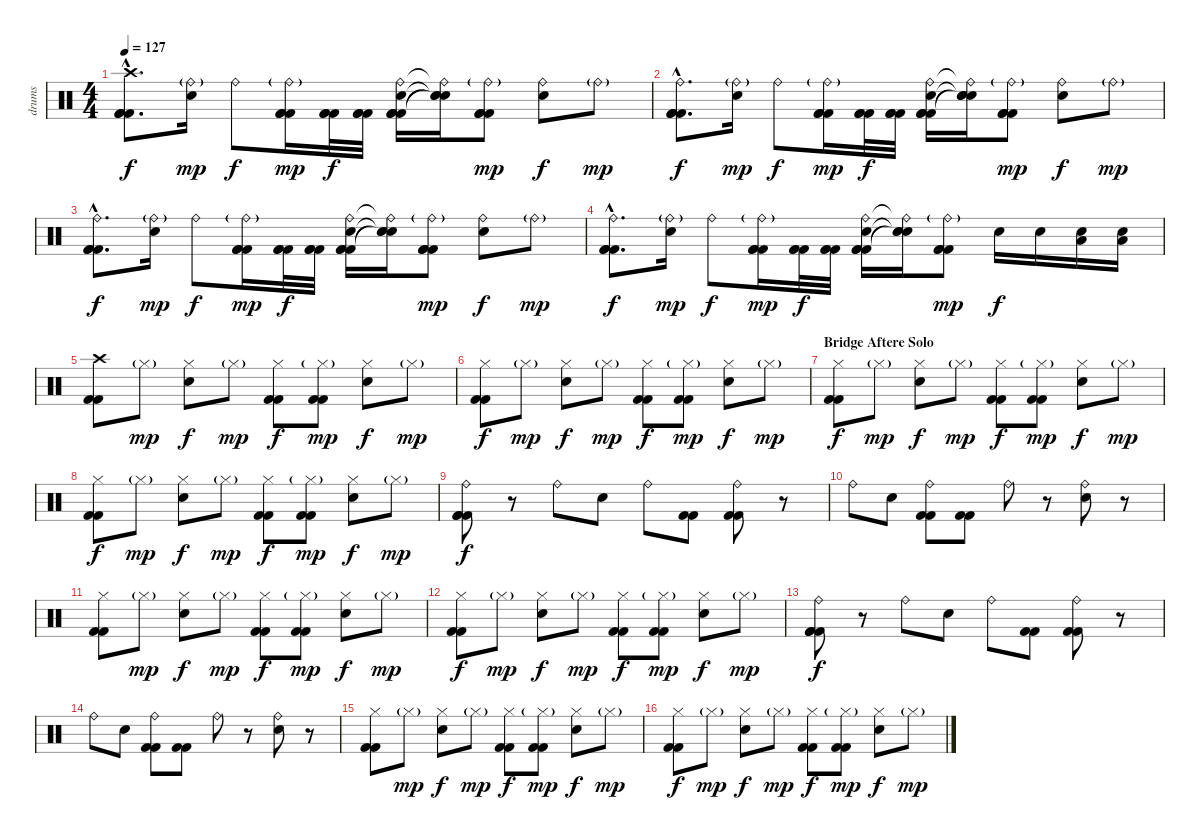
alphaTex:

\track ("drums" "drums") {instrument percussion}
\staff {score}
\articulation defaults
\ts (4 4)
\tempo 127
\clef neutral
\ks c
("Crash high (hit)"{hac} "Kick (hit) 2"{hac} "Kick (hit) 2"{hac} "Kick (hit) 2"{hac}).8{d dy f} ("Ride (bell)"{g} "Electric Snare (hit)").16{dy mp} "Ride (bell)".8{dy f} ("Ride (bell)"{g} "Kick (hit) 2" "Kick (hit) 2" "Kick (hit) 2").16{dy mp} ("Kick (hit) 2" "Kick (hit) 2" "Kick (hit) 2").32{dy f} ("Kick (hit) 2" "Kick (hit) 2" "Kick (hit) 2").32 ("Ride (bell)" "Electric Snare (hit)" "Kick (hit) 2" "Kick (hit) 2" "Kick (hit) 2").16 ("Ride (bell)"{t} "Electric Snare (hit)"{t} "Snare (hit)"{t} "Snare (hit)"{t}).16 ("Ride (bell)"{g} "Kick (hit) 2" "Kick (hit) 2" "Kick (hit) 2").8{dy mp} ("Ride (bell)" "Electric Snare (hit)").8{dy f} "Ride (bell)"{g}.8{dy mp} |
("Ride (bell)"{hac} "Kick (hit) 2"{hac} "Kick (hit) 2"{hac} "Kick (hit) 2"{hac}).8{d dy f} ("Ride (bell)"{g} "Electric Snare (hit)").16{dy mp} "Ride (bell)".8{dy f} ("Ride (bell)"{g} "Kick (hit) 2" "Kick (hit) 2" "Kick (hit) 2").16{dy mp} ("Kick (hit) 2" "Kick (hit) 2" "Kick (hit) 2").32{dy f} ("Kick (hit) 2" "Kick (hit) 2" "Kick (hit) 2").32 ("Ride (bell)" "Electric Snare (hit)" "Kick (hit) 2" "Kick (hit) 2" "Kick (hit) 2").16 ("Ride (bell)"{t} "Electric Snare (hit)"{t} "Snare (hit)"{t} "Snare (hit)"{t}).16 ("Ride (bell)"{g} "Kick (hit) 2" "Kick (hit) 2" "Kick (hit) 2").8{dy mp} ("Ride (bell)" "Electric Snare (hit)").8{dy f} "Ride (bell)"{g}.8{dy mp} |
("Ride (bell)"{hac} "Kick (hit) 2"{hac} "Kick (hit) 2"{hac} "Kick (hit) 2"{hac}).8{d dy f} ("Ride (bell)"{g} "Electric Snare (hit)").16{dy mp} "Ride (bell)".8{dy f} ("Ride (bell)"{g} "Kick (hit) 2" "Kick (hit) 2" "Kick (hit) 2").16{dy mp} ("Kick (hit) 2" "Kick (hit) 2" "Kick (hit) 2").32{dy f} ("Kick (hit) 2" "Kick (hit) 2" "Kick (hit) 2").32 ("Ride (bell)" "Electric Snare (hit)" "Kick (hit) 2" "Kick (hit) 2" "Kick (hit) 2").16 ("Ride (bell)"{t} "Electric Snare (hit)"{t} "Snare (hit)"{t} "Snare (hit)"{t}).16 ("Ride (bell)"{g} "Kick (hit) 2" "Kick (hit) 2" "Kick (hit) 2").8{dy mp} ("Ride (bell)" "Electric Snare (hit)").8{dy f} "Ride (bell)"{g}.8{dy mp} |
("Ride (bell)"{hac} "Kick (hit) 2"{hac} "Kick (hit) 2"{hac} "Kick (hit) 2"{hac}).8{d dy f} ("Ride (bell)"{g} "Electric Snare (hit)").16{dy mp} "Ride (bell)".8{dy f} ("Ride (bell)"{g} "Kick (hit) 2" "Kick (hit) 2" "Kick (hit) 2").16{dy mp} ("Kick (hit) 2" "Kick (hit) 2" "Kick (hit) 2").32{dy f} ("Kick (hit) 2" "Kick (hit) 2" "Kick (hit) 2").32 ("Ride (bell)" "Electric Snare (hit)" "Kick (hit) 2" "Kick (hit) 2" "Kick (hit) 2").16 ("Ride (bell)"{t} "Electric Snare (hit)"{t} "Snare (hit)"{t} "Snare (hit)"{t}).16 ("Ride (bell)"{g} "Kick (hit) 2" "Kick (hit) 2" "Kick (hit) 2").8{dy mp} "Electric Snare (hit)".16{dy f} "Electric Snare (hit)".16 ("Low Floor Tom (hit)" "Electric Snare (hit)").16 ("Low Floor Tom (hit)" "Electric Snare (hit)").16 |
("Crash high (hit)" "Kick (hit) 2" "Kick (hit) 2").8 "Hi-Hat (closed)"{g}.8{dy mp} ("Hi-Hat (closed)" "Electric Snare (hit)").8{dy f} "Hi-Hat (closed)"{g}.8{dy mp} ("Hi-Hat (closed)" "Kick (hit) 2" "Kick (hit) 2").8{dy f} ("Hi-Hat (closed)"{g} "Kick (hit) 2" "Kick (hit) 2").8{dy mp} ("Hi-Hat (closed)" "Electric Snare (hit)").8{dy f} "Hi-Hat (closed)"{g}.8{dy mp} |
("Hi-Hat (closed)" "Kick (hit) 2" "Kick (hit) 2").8{dy f} "Hi-Hat (closed)"{g}.8{dy mp} ("Hi-Hat (closed)" "Electric Snare (hit)").8{dy f} "Hi-Hat (closed)"{g}.8{dy mp} ("Hi-Hat (closed)" "Kick (hit) 2" "Kick (hit) 2").8{dy f} ("Hi-Hat (closed)"{g} "Kick (hit) 2" "Kick (hit) 2").8{dy mp} ("Hi-Hat (closed)" "Electric Snare (hit)").8{dy f} "Hi-Hat (closed)"{g}.8{dy mp} |
\section ("" "Bridge Aftere Solo")
("Hi-Hat (closed)" "Kick (hit) 2" "Kick (hit) 2").8{dy f} "Hi-Hat (closed)"{g}.8{dy mp} ("Hi-Hat (closed)" "Electric Snare (hit)").8{dy f} "Hi-Hat (closed)"{g}.8{dy mp} ("Hi-Hat (closed)" "Kick (hit) 2" "Kick (hit) 2").8{dy f} ("Hi-Hat (closed)"{g} "Kick (hit) 2" "Kick (hit) 2").8{dy mp} ("Hi-Hat (closed)" "Electric Snare (hit)").8{dy f} "Hi-Hat (closed)"{g}.8{dy mp} |
("Hi-Hat (closed)" "Kick (hit) 2" "Kick (hit) 2").8{dy f} "Hi-Hat (closed)"{g}.8{dy mp} ("Hi-Hat (closed)" "Electric Snare (hit)").8{dy f} "Hi-Hat (closed)"{g}.8{dy mp} ("Hi-Hat (closed)" "Kick (hit) 2" "Kick (hit) 2").8{dy f} ("Hi-Hat (closed)"{g} "Kick (hit) 2" "Kick (hit) 2").8{dy mp} ("Hi-Hat (closed)" "Electric Snare (hit)").8{dy f} "Hi-Hat (closed)"{g}.8{dy mp} |
("Ride (bell)" "Kick (hit) 2" "Kick (hit) 2" "Kick (hit) 2").8{dy f} r.8 "Ride (bell)".8 "Electric Snare (hit)".8 "Ride (bell)".8 ("Kick (hit) 2" "Kick (hit) 2").8 ("Ride (bell)" "Kick (hit) 2" "Kick (hit) 2").8 r.8 |
"Ride (bell)".8 "Electric Snare (hit)".8 ("Ride (bell)" "Kick (hit) 2" "Kick (hit) 2").8 ("Kick (hit) 2" "Kick (hit) 2").8 "Ride (bell)".8 r.8 ("Ride (bell)" "Electric Snare (hit)").8 r.8 |
("Hi-Hat (closed)" "Kick (hit) 2" "Kick (hit) 2").8 "Hi-Hat (closed)"{g}.8{dy mp} ("Hi-Hat (closed)" "Electric Snare (hit)").8{dy f} "Hi-Hat (closed)"{g}.8{dy mp} ("Hi-Hat (closed)" "Kick (hit) 2" "Kick (hit) 2").8{dy f} ("Hi-Hat (closed)"{g} "Kick (hit) 2" "Kick (hit) 2").8{dy mp} ("Hi-Hat (closed)" "Electric Snare (hit)").8{dy f} "Hi-Hat (closed)"{g}.8{dy mp} |
("Hi-Hat (closed)" "Kick (hit) 2" "Kick (hit) 2").8{dy f} "Hi-Hat (closed)"{g}.8{dy mp} ("Hi-Hat (closed)" "Electric Snare (hit)").8{dy f} "Hi-Hat (closed)"{g}.8{dy mp} ("Hi-Hat (closed)" "Kick (hit) 2" "Kick (hit) 2").8{dy f} ("Hi-Hat (closed)"{g} "Kick (hit) 2" "Kick (hit) 2").8{dy mp} ("Hi-Hat (closed)" "Electric Snare (hit)").8{dy f} "Hi-Hat (closed)"{g}.8{dy mp} |
("Ride (bell)" "Kick (hit) 2" "Kick (hit) 2" "Kick (hit) 2").8{dy f} r.8 "Ride (bell)".8 "Electric Snare (hit)".8 "Ride (bell)".8 ("Kick (hit) 2" "Kick (hit) 2").8 ("Ride (bell)" "Kick (hit) 2" "Kick (hit) 2").8 r.8 |
"Ride (bell)".8 "Electric Snare (hit)".8 ("Ride (bell)" "Kick (hit) 2" "Kick (hit) 2").8 ("Kick (hit) 2" "Kick (hit) 2").8 "Ride (bell)".8 r.8 ("Ride (bell)" "Electric Snare (hit)").8 r.8 |
("Hi-Hat (closed)" "Kick (hit) 2" "Kick (hit) 2").8 "Hi-Hat (closed)"{g}.8{dy mp} ("Hi-Hat (closed)" "Electric Snare (hit)").8{dy f} "Hi-Hat (closed)"{g}.8{dy mp} ("Hi-Hat (closed)" "Kick (hit) 2" "Kick (hit) 2").8{dy f} ("Hi-Hat (closed)"{g} "Kick (hit) 2" "Kick (hit) 2").8{dy mp} ("Hi-Hat (closed)" "Electric Snare (hit)").8{dy f} "Hi-Hat (closed)"{g}.8{dy mp} |
("Hi-Hat (closed)" "Kick (hit) 2" "Kick (hit) 2").8{dy f} "Hi-Hat (closed)"{g}.8{dy mp} ("Hi-Hat (closed)" "Electric Snare (hit)").8{dy f} "Hi-Hat (closed)"{g}.8{dy mp} ("Hi-Hat (closed)" "Kick (hit) 2" "Kick (hit) 2").8{dy f} ("Hi-Hat (closed)"{g} "Kick (hit) 2" "Kick (hit) 2").8{dy mp} ("Hi-Hat (closed)" "Electric Snare (hit)").8{dy f} "Hi-Hat (closed)"{g}.8{dy mp}
